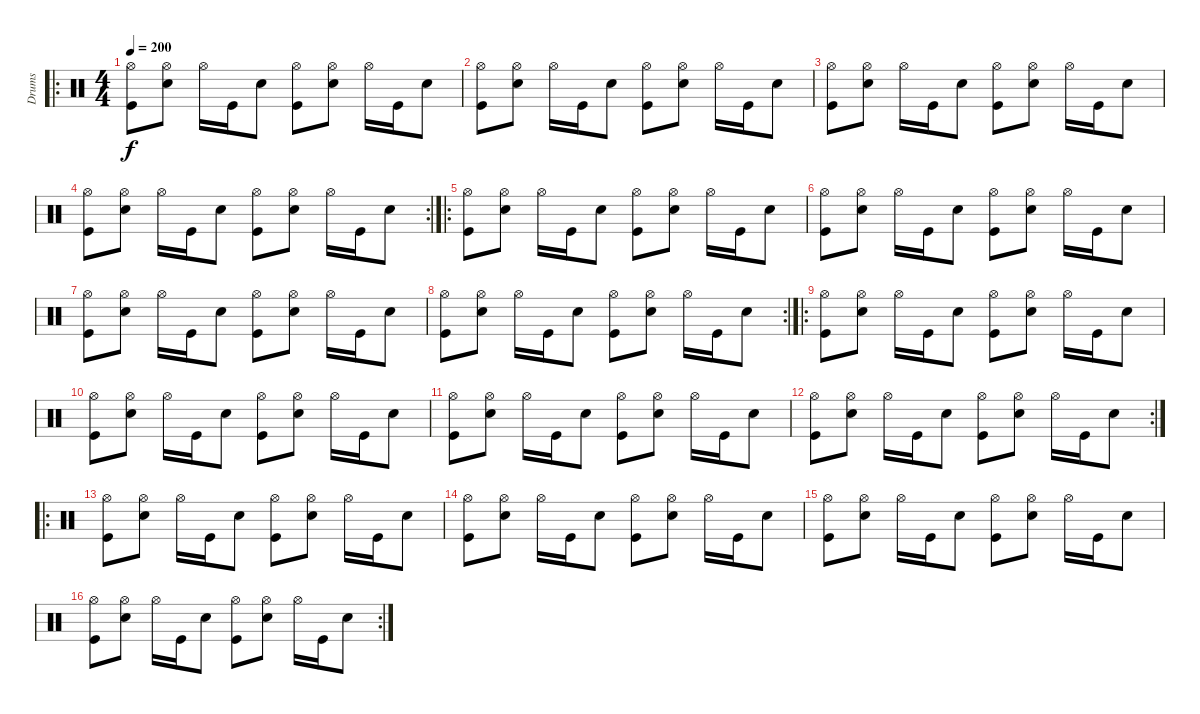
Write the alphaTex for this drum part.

\track ("Drums" "Drums") {instrument percussion}
\staff {score}
\articulation defaults
\ro
\ts (4 4)
\tempo 200
\clef neutral
\ks c
("Hi-Hat (open)" "Kick (hit)").8{dy f} ("Hi-Hat (open)" "Snare (hit) 2").8 "Hi-Hat (open)".16 "Kick (hit)".16 "Snare (hit) 2".8 ("Hi-Hat (open)" "Kick (hit)").8 ("Hi-Hat (open)" "Snare (hit) 2").8 "Hi-Hat (open)".16 "Kick (hit)".16 "Snare (hit) 2".8 |
("Hi-Hat (open)" "Kick (hit)").8 ("Hi-Hat (open)" "Snare (hit) 2").8 "Hi-Hat (open)".16 "Kick (hit)".16 "Snare (hit) 2".8 ("Hi-Hat (open)" "Kick (hit)").8 ("Hi-Hat (open)" "Snare (hit) 2").8 "Hi-Hat (open)".16 "Kick (hit)".16 "Snare (hit) 2".8 |
("Hi-Hat (open)" "Kick (hit)").8 ("Hi-Hat (open)" "Snare (hit) 2").8 "Hi-Hat (open)".16 "Kick (hit)".16 "Snare (hit) 2".8 ("Hi-Hat (open)" "Kick (hit)").8 ("Hi-Hat (open)" "Snare (hit) 2").8 "Hi-Hat (open)".16 "Kick (hit)".16 "Snare (hit) 2".8 |
\rc 2
("Hi-Hat (open)" "Kick (hit)").8 ("Hi-Hat (open)" "Snare (hit) 2").8 "Hi-Hat (open)".16 "Kick (hit)".16 "Snare (hit) 2".8 ("Hi-Hat (open)" "Kick (hit)").8 ("Hi-Hat (open)" "Snare (hit) 2").8 "Hi-Hat (open)".16 "Kick (hit)".16 "Snare (hit) 2".8 |
\ro
("Hi-Hat (open)" "Kick (hit)").8 ("Hi-Hat (open)" "Snare (hit) 2").8 "Hi-Hat (open)".16 "Kick (hit)".16 "Snare (hit) 2".8 ("Hi-Hat (open)" "Kick (hit)").8 ("Hi-Hat (open)" "Snare (hit) 2").8 "Hi-Hat (open)".16 "Kick (hit)".16 "Snare (hit) 2".8 |
("Hi-Hat (open)" "Kick (hit)").8 ("Hi-Hat (open)" "Snare (hit) 2").8 "Hi-Hat (open)".16 "Kick (hit)".16 "Snare (hit) 2".8 ("Hi-Hat (open)" "Kick (hit)").8 ("Hi-Hat (open)" "Snare (hit) 2").8 "Hi-Hat (open)".16 "Kick (hit)".16 "Snare (hit) 2".8 |
("Hi-Hat (open)" "Kick (hit)").8 ("Hi-Hat (open)" "Snare (hit) 2").8 "Hi-Hat (open)".16 "Kick (hit)".16 "Snare (hit) 2".8 ("Hi-Hat (open)" "Kick (hit)").8 ("Hi-Hat (open)" "Snare (hit) 2").8 "Hi-Hat (open)".16 "Kick (hit)".16 "Snare (hit) 2".8 |
\rc 2
("Hi-Hat (open)" "Kick (hit)").8 ("Hi-Hat (open)" "Snare (hit) 2").8 "Hi-Hat (open)".16 "Kick (hit)".16 "Snare (hit) 2".8 ("Hi-Hat (open)" "Kick (hit)").8 ("Hi-Hat (open)" "Snare (hit) 2").8 "Hi-Hat (open)".16 "Kick (hit)".16 "Snare (hit) 2".8 |
\ro
("Hi-Hat (open)" "Kick (hit)").8 ("Hi-Hat (open)" "Snare (hit) 2").8 "Hi-Hat (open)".16 "Kick (hit)".16 "Snare (hit) 2".8 ("Hi-Hat (open)" "Kick (hit)").8 ("Hi-Hat (open)" "Snare (hit) 2").8 "Hi-Hat (open)".16 "Kick (hit)".16 "Snare (hit) 2".8 |
("Hi-Hat (open)" "Kick (hit)").8 ("Hi-Hat (open)" "Snare (hit) 2").8 "Hi-Hat (open)".16 "Kick (hit)".16 "Snare (hit) 2".8 ("Hi-Hat (open)" "Kick (hit)").8 ("Hi-Hat (open)" "Snare (hit) 2").8 "Hi-Hat (open)".16 "Kick (hit)".16 "Snare (hit) 2".8 |
("Hi-Hat (open)" "Kick (hit)").8 ("Hi-Hat (open)" "Snare (hit) 2").8 "Hi-Hat (open)".16 "Kick (hit)".16 "Snare (hit) 2".8 ("Hi-Hat (open)" "Kick (hit)").8 ("Hi-Hat (open)" "Snare (hit) 2").8 "Hi-Hat (open)".16 "Kick (hit)".16 "Snare (hit) 2".8 |
\rc 2
("Hi-Hat (open)" "Kick (hit)").8 ("Hi-Hat (open)" "Snare (hit) 2").8 "Hi-Hat (open)".16 "Kick (hit)".16 "Snare (hit) 2".8 ("Hi-Hat (open)" "Kick (hit)").8 ("Hi-Hat (open)" "Snare (hit) 2").8 "Hi-Hat (open)".16 "Kick (hit)".16 "Snare (hit) 2".8 |
\ro
("Hi-Hat (open)" "Kick (hit)").8 ("Hi-Hat (open)" "Snare (hit) 2").8 "Hi-Hat (open)".16 "Kick (hit)".16 "Snare (hit) 2".8 ("Hi-Hat (open)" "Kick (hit)").8 ("Hi-Hat (open)" "Snare (hit) 2").8 "Hi-Hat (open)".16 "Kick (hit)".16 "Snare (hit) 2".8 |
("Hi-Hat (open)" "Kick (hit)").8 ("Hi-Hat (open)" "Snare (hit) 2").8 "Hi-Hat (open)".16 "Kick (hit)".16 "Snare (hit) 2".8 ("Hi-Hat (open)" "Kick (hit)").8 ("Hi-Hat (open)" "Snare (hit) 2").8 "Hi-Hat (open)".16 "Kick (hit)".16 "Snare (hit) 2".8 |
("Hi-Hat (open)" "Kick (hit)").8 ("Hi-Hat (open)" "Snare (hit) 2").8 "Hi-Hat (open)".16 "Kick (hit)".16 "Snare (hit) 2".8 ("Hi-Hat (open)" "Kick (hit)").8 ("Hi-Hat (open)" "Snare (hit) 2").8 "Hi-Hat (open)".16 "Kick (hit)".16 "Snare (hit) 2".8 |
\rc 2
("Hi-Hat (open)" "Kick (hit)").8 ("Hi-Hat (open)" "Snare (hit) 2").8 "Hi-Hat (open)".16 "Kick (hit)".16 "Snare (hit) 2".8 ("Hi-Hat (open)" "Kick (hit)").8 ("Hi-Hat (open)" "Snare (hit) 2").8 "Hi-Hat (open)".16 "Kick (hit)".16 "Snare (hit) 2".8
